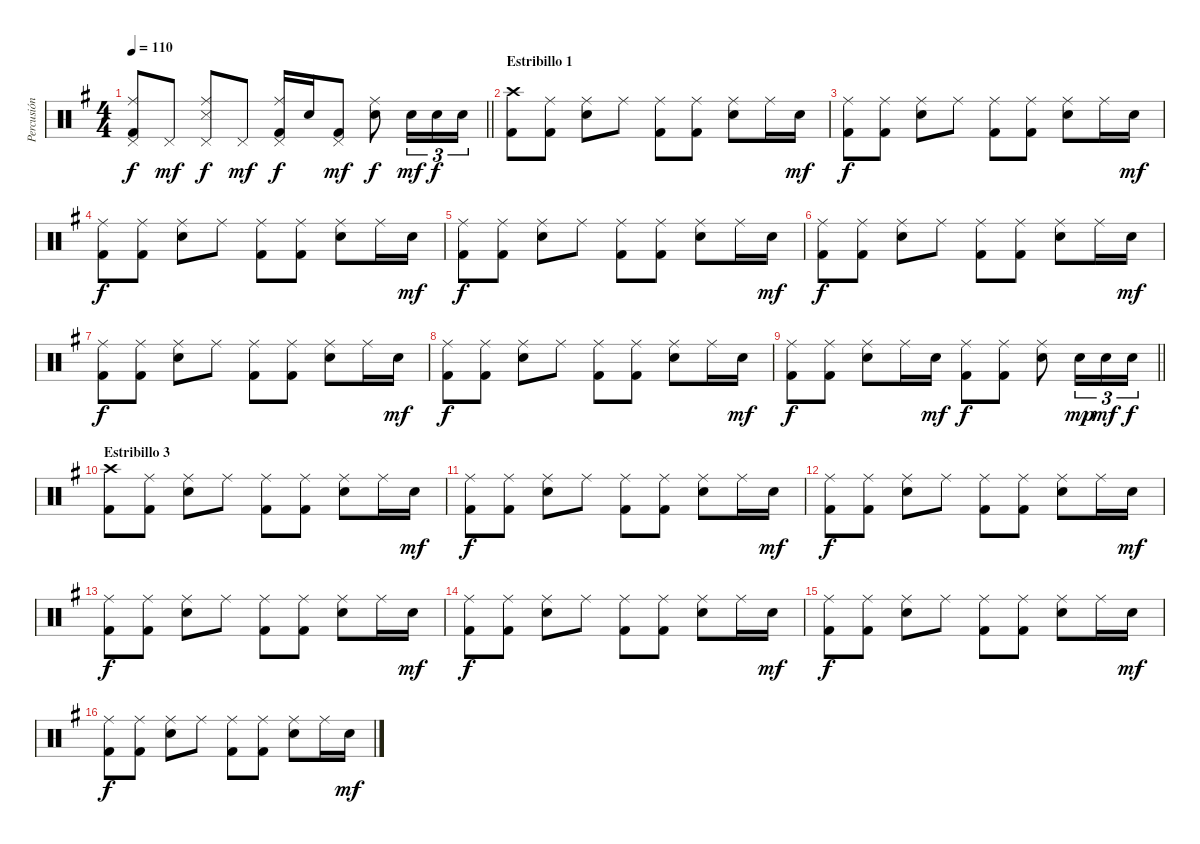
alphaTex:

\track ("Percusión" "Percusión") {instrument percussion}
\staff {score}
\articulation defaults
\ts (4 4)
\tempo 110
\clef neutral
\barLineRight lightlight
\ks g
("Ride (middle)" "Pedal Hi-Hat (hit)" "Kick (hit) 2").8{dy f} "Pedal Hi-Hat (hit)".8{dy mf} ("Ride (middle)" "Pedal Hi-Hat (hit)" "Snare (side stick) 3").8{dy f} "Pedal Hi-Hat (hit)".8{dy mf} ("Ride (middle)" "Pedal Hi-Hat (hit)" "Kick (hit) 2").16{dy f} "Electric Snare (hit)".16 ("Pedal Hi-Hat (hit)" "Kick (hit) 2").8{dy mf} ("Ride (middle)" "Electric Snare (hit)").8{dy f} "Electric Snare (hit)".16{tu (3 2) dy mf} "Electric Snare (hit)".16{tu (3 2) dy f} "Electric Snare (hit)".16{tu (3 2)} |
\section ("" "Estribillo 1")
("Crash high (hit)" "Kick (hit) 2").8 ("Ride (middle)" "Kick (hit) 2").8 ("Ride (middle)" "Snare (hit) 2").8 "Ride (middle)".8 ("Ride (middle)" "Kick (hit) 2").8 ("Ride (middle)" "Kick (hit) 2").8 ("Ride (middle)" "Snare (hit) 2").8 "Ride (middle)".16 "Snare (hit) 2".16{dy mf} |
("Ride (middle)" "Kick (hit) 2").8{dy f} ("Ride (middle)" "Kick (hit) 2").8 ("Ride (middle)" "Snare (hit) 2").8 "Ride (middle)".8 ("Ride (middle)" "Kick (hit) 2").8 ("Ride (middle)" "Kick (hit) 2").8 ("Ride (middle)" "Snare (hit) 2").8 "Ride (middle)".16 "Snare (hit) 2".16{dy mf} |
("Ride (middle)" "Kick (hit) 2").8{dy f} ("Ride (middle)" "Kick (hit) 2").8 ("Ride (middle)" "Snare (hit) 2").8 "Ride (middle)".8 ("Ride (middle)" "Kick (hit) 2").8 ("Ride (middle)" "Kick (hit) 2").8 ("Ride (middle)" "Snare (hit) 2").8 "Ride (middle)".16 "Snare (hit) 2".16{dy mf} |
("Ride (middle)" "Kick (hit) 2").8{dy f} ("Ride (middle)" "Kick (hit) 2").8 ("Ride (middle)" "Snare (hit) 2").8 "Ride (middle)".8 ("Ride (middle)" "Kick (hit) 2").8 ("Ride (middle)" "Kick (hit) 2").8 ("Ride (middle)" "Snare (hit) 2").8 "Ride (middle)".16 "Snare (hit) 2".16{dy mf} |
("Ride (middle)" "Kick (hit) 2").8{dy f} ("Ride (middle)" "Kick (hit) 2").8 ("Ride (middle)" "Snare (hit) 2").8 "Ride (middle)".8 ("Ride (middle)" "Kick (hit) 2").8 ("Ride (middle)" "Kick (hit) 2").8 ("Ride (middle)" "Snare (hit) 2").8 "Ride (middle)".16 "Snare (hit) 2".16{dy mf} |
("Ride (middle)" "Kick (hit) 2").8{dy f} ("Ride (middle)" "Kick (hit) 2").8 ("Ride (middle)" "Snare (hit) 2").8 "Ride (middle)".8 ("Ride (middle)" "Kick (hit) 2").8 ("Ride (middle)" "Kick (hit) 2").8 ("Ride (middle)" "Snare (hit) 2").8 "Ride (middle)".16 "Snare (hit) 2".16{dy mf} |
("Ride (middle)" "Kick (hit) 2").8{dy f} ("Ride (middle)" "Kick (hit) 2").8 ("Ride (middle)" "Snare (hit) 2").8 "Ride (middle)".8 ("Ride (middle)" "Kick (hit) 2").8 ("Ride (middle)" "Kick (hit) 2").8 ("Ride (middle)" "Snare (hit) 2").8 "Ride (middle)".16 "Snare (hit) 2".16{dy mf} |
\barLineRight lightlight
("Ride (middle)" "Kick (hit) 2").8{dy f} ("Ride (middle)" "Kick (hit) 2").8 ("Ride (middle)" "Snare (hit) 2").8 "Ride (middle)".16 "Snare (hit) 2".16{dy mf} ("Ride (middle)" "Kick (hit) 2").8{dy f} ("Ride (middle)" "Kick (hit) 2").8 ("Ride (middle)" "Snare (hit) 2").8 "Snare (hit) 2".16{tu (3 2) dy mp} "Snare (hit) 2".16{tu (3 2) dy mf} "Snare (hit) 2".16{tu (3 2) dy f} |
\section ("" "Estribillo 3")
("Crash high (hit)" "Kick (hit) 2").8 ("Ride (middle)" "Kick (hit) 2").8 ("Ride (middle)" "Snare (hit) 2").8 "Ride (middle)".8 ("Ride (middle)" "Kick (hit) 2").8 ("Ride (middle)" "Kick (hit) 2").8 ("Ride (middle)" "Snare (hit) 2").8 "Ride (middle)".16 "Snare (hit) 2".16{dy mf} |
("Ride (middle)" "Kick (hit) 2").8{dy f} ("Ride (middle)" "Kick (hit) 2").8 ("Ride (middle)" "Snare (hit) 2").8 "Ride (middle)".8 ("Ride (middle)" "Kick (hit) 2").8 ("Ride (middle)" "Kick (hit) 2").8 ("Ride (middle)" "Snare (hit) 2").8 "Ride (middle)".16 "Snare (hit) 2".16{dy mf} |
("Ride (middle)" "Kick (hit) 2").8{dy f} ("Ride (middle)" "Kick (hit) 2").8 ("Ride (middle)" "Snare (hit) 2").8 "Ride (middle)".8 ("Ride (middle)" "Kick (hit) 2").8 ("Ride (middle)" "Kick (hit) 2").8 ("Ride (middle)" "Snare (hit) 2").8 "Ride (middle)".16 "Snare (hit) 2".16{dy mf} |
("Ride (middle)" "Kick (hit) 2").8{dy f} ("Ride (middle)" "Kick (hit) 2").8 ("Ride (middle)" "Snare (hit) 2").8 "Ride (middle)".8 ("Ride (middle)" "Kick (hit) 2").8 ("Ride (middle)" "Kick (hit) 2").8 ("Ride (middle)" "Snare (hit) 2").8 "Ride (middle)".16 "Snare (hit) 2".16{dy mf} |
("Ride (middle)" "Kick (hit) 2").8{dy f} ("Ride (middle)" "Kick (hit) 2").8 ("Ride (middle)" "Snare (hit) 2").8 "Ride (middle)".8 ("Ride (middle)" "Kick (hit) 2").8 ("Ride (middle)" "Kick (hit) 2").8 ("Ride (middle)" "Snare (hit) 2").8 "Ride (middle)".16 "Snare (hit) 2".16{dy mf} |
("Ride (middle)" "Kick (hit) 2").8{dy f} ("Ride (middle)" "Kick (hit) 2").8 ("Ride (middle)" "Snare (hit) 2").8 "Ride (middle)".8 ("Ride (middle)" "Kick (hit) 2").8 ("Ride (middle)" "Kick (hit) 2").8 ("Ride (middle)" "Snare (hit) 2").8 "Ride (middle)".16 "Snare (hit) 2".16{dy mf} |
("Ride (middle)" "Kick (hit) 2").8{dy f} ("Ride (middle)" "Kick (hit) 2").8 ("Ride (middle)" "Snare (hit) 2").8 "Ride (middle)".8 ("Ride (middle)" "Kick (hit) 2").8 ("Ride (middle)" "Kick (hit) 2").8 ("Ride (middle)" "Snare (hit) 2").8 "Ride (middle)".16 "Snare (hit) 2".16{dy mf}
